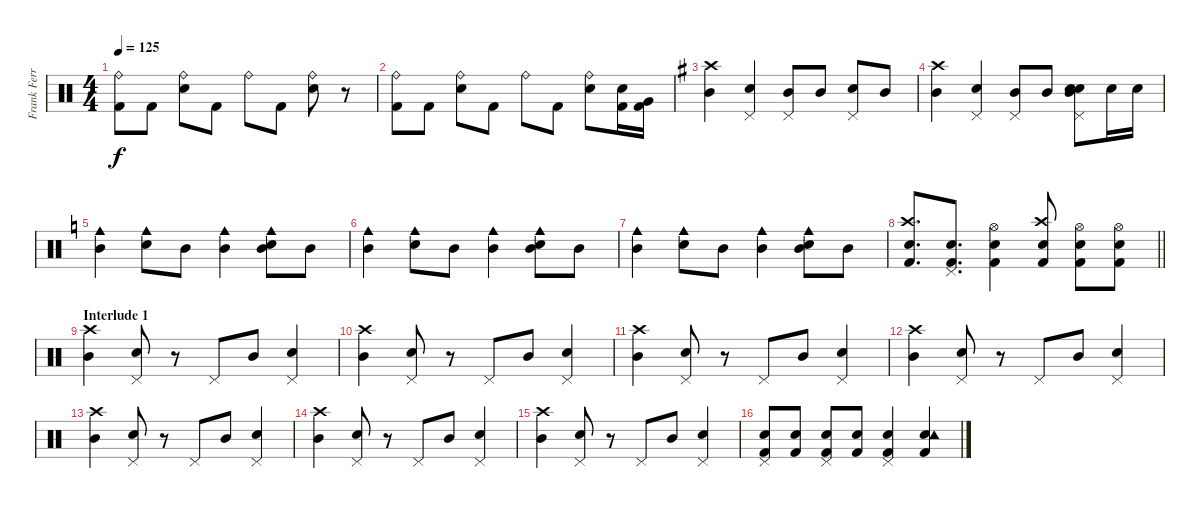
\track ("Frank Ferrer" "Frank Ferr") {instrument percussion}
\staff {score}
\articulation defaults
\ts (4 4)
\tempo 125
\clef neutral
\ks c
("Kick (hit) 2" "Ride (bell)").8{dy f} "Kick (hit) 2".8 ("Electric Snare (hit)" "Ride (bell)").8 "Kick (hit) 2".8 "Ride (bell)".8 "Kick (hit) 2".8 ("Electric Snare (hit)" "Ride (bell)").8 r.8 |
("Kick (hit) 2" "Ride (bell)").8 "Kick (hit) 2".8 ("Electric Snare (hit)" "Ride (bell)").8 "Kick (hit) 2".8 "Ride (bell)".8 "Kick (hit) 2".8 ("Electric Snare (hit)" "Ride (bell)").8 ("Kick (hit) 2" "Electric Snare (hit)").16 ("Kick (hit) 2" "Very Low Tom (hit)").16 |
\ks g
("Crash high (hit)" "Mid Tom (hit)").4 ("Pedal Hi-Hat (hit)" "Snare (hit) 2").4 ("Pedal Hi-Hat (hit)" "Mid Tom (hit)").8 "Mid Tom (hit)".8 ("Pedal Hi-Hat (hit)" "Snare (hit) 2").8 "Mid Tom (hit)".8 |
("Crash high (hit)" "Mid Tom (hit)").4 ("Pedal Hi-Hat (hit)" "Snare (hit) 2").4 ("Pedal Hi-Hat (hit)" "Mid Tom (hit)").8 "Mid Tom (hit)".8 ("Pedal Hi-Hat (hit)" "Snare (hit) 2" "Electric Snare (hit)" "Mid Tom (hit)").8 "Electric Snare (hit)".16 "Electric Snare (hit)".16 |
\ks c
("Mid Tom (hit)" "Cowbell medium (hit)").4 ("Electric Snare (hit)" "Cowbell medium (hit)").8 "Mid Tom (hit)".8 ("Mid Tom (hit)" "Cowbell medium (hit)").4 ("Electric Snare (hit)" "Mid Tom (hit)" "Cowbell medium (hit)").8 "Mid Tom (hit)".8 |
("Mid Tom (hit)" "Cowbell medium (hit)").4 ("Electric Snare (hit)" "Cowbell medium (hit)").8 "Mid Tom (hit)".8 ("Mid Tom (hit)" "Cowbell medium (hit)").4 ("Electric Snare (hit)" "Mid Tom (hit)" "Cowbell medium (hit)").8 "Mid Tom (hit)".8 |
("Mid Tom (hit)" "Cowbell medium (hit)").4 ("Electric Snare (hit)" "Cowbell medium (hit)").8 "Mid Tom (hit)".8 ("Mid Tom (hit)" "Cowbell medium (hit)").4 ("Electric Snare (hit)" "Mid Tom (hit)" "Cowbell medium (hit)").8 "Mid Tom (hit)".8 |
\barLineRight lightlight
("Kick (hit) 2" "Snare (hit) 2" "Crash high (hit)").8{d} ("Kick (hit) 2" "Snare (hit) 2" "Pedal Hi-Hat (hit)").8{d} ("Kick (hit) 2" "Snare (hit) 2" "Hi-Hat (open)").4 ("Kick (hit) 2" "Snare (hit) 2" "Crash high (hit)").8 ("Kick (hit) 2" "Snare (hit) 2" "Hi-Hat (open)").8 ("Kick (hit) 2" "Snare (hit) 2" "Hi-Hat (open)").8 |
\section ("" "Interlude 1")
("Crash high (hit)" "Mid Tom (hit)").4 ("Pedal Hi-Hat (hit)" "Electric Snare (hit)").8 r.8 "Pedal Hi-Hat (hit)".8 "Mid Tom (hit)".8 ("Pedal Hi-Hat (hit)" "Electric Snare (hit)").4 |
("Crash high (hit)" "Mid Tom (hit)").4 ("Pedal Hi-Hat (hit)" "Electric Snare (hit)").8 r.8 "Pedal Hi-Hat (hit)".8 "Mid Tom (hit)".8 ("Pedal Hi-Hat (hit)" "Electric Snare (hit)").4 |
("Crash high (hit)" "Mid Tom (hit)").4 ("Pedal Hi-Hat (hit)" "Electric Snare (hit)").8 r.8 "Pedal Hi-Hat (hit)".8 "Mid Tom (hit)".8 ("Pedal Hi-Hat (hit)" "Electric Snare (hit)").4 |
("Crash high (hit)" "Mid Tom (hit)").4 ("Pedal Hi-Hat (hit)" "Electric Snare (hit)").8 r.8 "Pedal Hi-Hat (hit)".8 "Mid Tom (hit)".8 ("Pedal Hi-Hat (hit)" "Electric Snare (hit)").4 |
("Crash high (hit)" "Mid Tom (hit)").4 ("Pedal Hi-Hat (hit)" "Electric Snare (hit)").8 r.8 "Pedal Hi-Hat (hit)".8 "Mid Tom (hit)".8 ("Pedal Hi-Hat (hit)" "Electric Snare (hit)").4 |
("Crash high (hit)" "Mid Tom (hit)").4 ("Pedal Hi-Hat (hit)" "Electric Snare (hit)").8 r.8 "Pedal Hi-Hat (hit)".8 "Mid Tom (hit)".8 ("Pedal Hi-Hat (hit)" "Electric Snare (hit)").4 |
("Crash high (hit)" "Mid Tom (hit)").4 ("Pedal Hi-Hat (hit)" "Electric Snare (hit)").8 r.8 "Pedal Hi-Hat (hit)".8 "Mid Tom (hit)".8 ("Pedal Hi-Hat (hit)" "Electric Snare (hit)").4 |
("Kick (hit) 2" "Electric Snare (hit)" "Pedal Hi-Hat (hit)").8 ("Kick (hit) 2" "Electric Snare (hit)").8 ("Kick (hit) 2" "Electric Snare (hit)" "Pedal Hi-Hat (hit)").8 ("Kick (hit) 2" "Electric Snare (hit)").8 ("Kick (hit) 2" "Electric Snare (hit)" "Pedal Hi-Hat (hit)").4 ("Kick (hit) 2" "Electric Snare (hit)" "Tambourine (hit)").4
